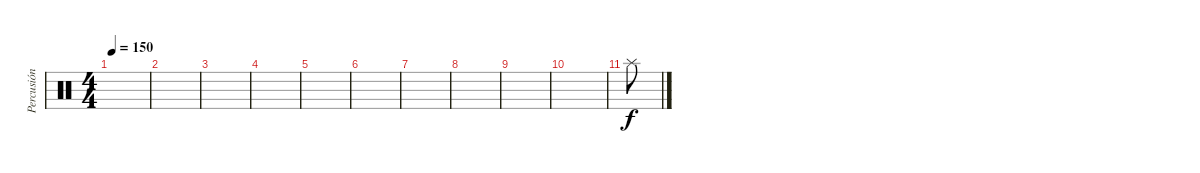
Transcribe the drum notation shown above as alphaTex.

\track ("Percusión" "Percusión") {instrument percussion}
\staff {score}
\articulation defaults
\ts (4 4)
\tempo 150
\clef neutral
\ks c
|
|
|
|
|
|
|
|
|
|
"Splash (hit)".8
